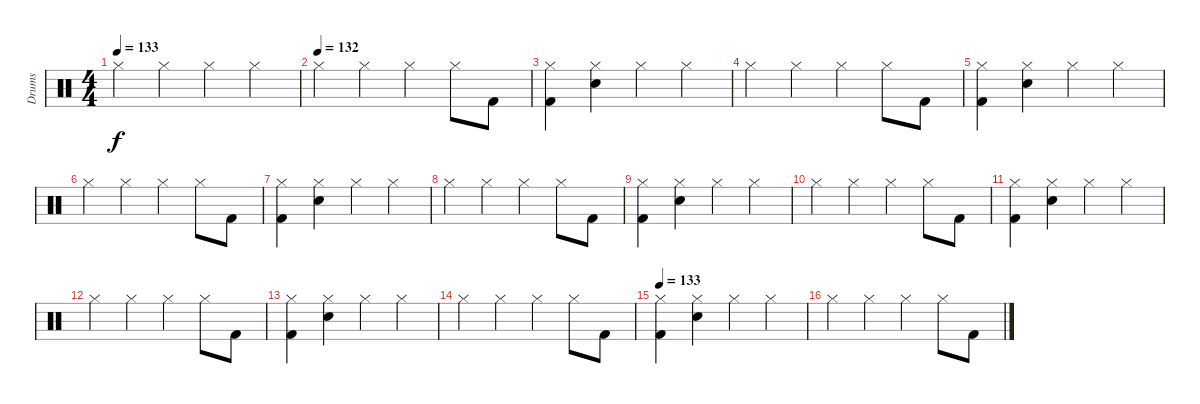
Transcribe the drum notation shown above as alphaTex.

\track ("Drums" "Drums") {instrument percussion}
\staff {score}
\articulation defaults
\ts (4 4)
\tempo 133
\clef neutral
\ks c "Hi-Hat (closed)".4{dy f} "Hi-Hat (closed)".4 "Hi-Hat (closed)".4 "Hi-Hat (closed)".4
|
\tempo (132)
"Hi-Hat (closed)".4 "Hi-Hat (closed)".4 "Hi-Hat (closed)".4 "Hi-Hat (closed)".8 "Kick (hit) 2".8 |
("Hi-Hat (closed)" "Kick (hit) 2").4 ("Hi-Hat (closed)" "Snare (hit) 2").4 "Hi-Hat (closed)".4 "Hi-Hat (closed)".4 |
"Hi-Hat (closed)".4 "Hi-Hat (closed)".4 "Hi-Hat (closed)".4 "Hi-Hat (closed)".8 "Kick (hit) 2".8 |
("Hi-Hat (closed)" "Kick (hit) 2").4 ("Hi-Hat (closed)" "Snare (hit) 2").4 "Hi-Hat (closed)".4 "Hi-Hat (closed)".4 |
"Hi-Hat (closed)".4 "Hi-Hat (closed)".4 "Hi-Hat (closed)".4 "Hi-Hat (closed)".8 "Kick (hit) 2".8 |
("Hi-Hat (closed)" "Kick (hit) 2").4 ("Hi-Hat (closed)" "Snare (hit) 2").4 "Hi-Hat (closed)".4 "Hi-Hat (closed)".4 |
"Hi-Hat (closed)".4 "Hi-Hat (closed)".4 "Hi-Hat (closed)".4 "Hi-Hat (closed)".8 "Kick (hit) 2".8 |
("Hi-Hat (closed)" "Kick (hit) 2").4 ("Hi-Hat (closed)" "Snare (hit) 2").4 "Hi-Hat (closed)".4 "Hi-Hat (closed)".4 |
"Hi-Hat (closed)".4 "Hi-Hat (closed)".4 "Hi-Hat (closed)".4 "Hi-Hat (closed)".8 "Kick (hit) 2".8 |
("Hi-Hat (closed)" "Kick (hit) 2").4 ("Hi-Hat (closed)" "Snare (hit) 2").4 "Hi-Hat (closed)".4 "Hi-Hat (closed)".4 |
"Hi-Hat (closed)".4 "Hi-Hat (closed)".4 "Hi-Hat (closed)".4 "Hi-Hat (closed)".8 "Kick (hit) 2".8 |
("Hi-Hat (closed)" "Kick (hit) 2").4 ("Hi-Hat (closed)" "Snare (hit) 2").4 "Hi-Hat (closed)".4 "Hi-Hat (closed)".4 |
"Hi-Hat (closed)".4 "Hi-Hat (closed)".4 "Hi-Hat (closed)".4 "Hi-Hat (closed)".8 "Kick (hit) 2".8 |
\tempo 133
("Hi-Hat (closed)" "Kick (hit) 2").4 ("Hi-Hat (closed)" "Snare (hit) 2").4 "Hi-Hat (closed)".4 "Hi-Hat (closed)".4 |
"Hi-Hat (closed)".4 "Hi-Hat (closed)".4 "Hi-Hat (closed)".4 "Hi-Hat (closed)".8 "Kick (hit) 2".8
